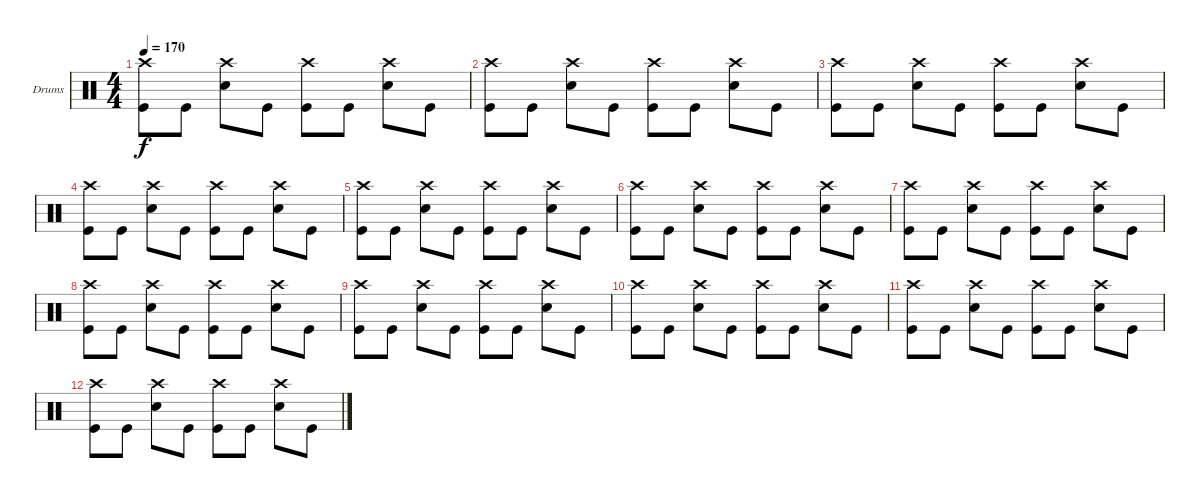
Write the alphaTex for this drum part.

\defaultSystemsLayout 4
\bracketExtendMode groupsimilarinstruments
\firstSystemTrackNameOrientation horizontal
\otherSystemsTrackNameOrientation horizontal
\track ("Drumkit" "Drums") {instrument percussion}
\staff {score}
\articulation defaults
\ts (4 4)
\tempo 170
\clef neutral
\scale
0.333333
\ks c
("Kick (hit)" "Crash high (hit)").8{dy f} "Kick (hit)".8 ("Snare (hit) 2" "Crash high (hit)").8 "Kick (hit)".8 ("Kick (hit)" "Crash high (hit)").8 "Kick (hit)".8 ("Snare (hit) 2" "Crash high (hit)").8 "Kick (hit)".8 |
\scale
0.333333 ("Kick (hit)" "Crash high (hit)").8 "Kick (hit)".8 ("Snare (hit) 2" "Crash high (hit)").8 "Kick (hit)".8 ("Kick (hit)" "Crash high (hit)").8 "Kick (hit)".8 ("Snare (hit) 2" "Crash high (hit)").8 "Kick (hit)".8 |
\scale
0.333333 ("Kick (hit)" "Crash high (hit)").8 "Kick (hit)".8 ("Snare (hit) 2" "Crash high (hit)").8 "Kick (hit)".8 ("Kick (hit)" "Crash high (hit)").8 "Kick (hit)".8 ("Snare (hit) 2" "Crash high (hit)").8 "Kick (hit)".8 |
\scale
0.333333 ("Kick (hit)" "Crash high (hit)").8 "Kick (hit)".8 ("Snare (hit) 2" "Crash high (hit)").8 "Kick (hit)".8 ("Kick (hit)" "Crash high (hit)").8 "Kick (hit)".8 ("Snare (hit) 2" "Crash high (hit)").8 "Kick (hit)".8 |
\scale
0.333333 ("Kick (hit)" "Crash high (hit)").8 "Kick (hit)".8 ("Snare (hit) 2" "Crash high (hit)").8 "Kick (hit)".8 ("Kick (hit)" "Crash high (hit)").8 "Kick (hit)".8 ("Snare (hit) 2" "Crash high (hit)").8 "Kick (hit)".8 |
\scale
0.333333 ("Kick (hit)" "Crash high (hit)").8 "Kick (hit)".8 ("Snare (hit) 2" "Crash high (hit)").8 "Kick (hit)".8 ("Kick (hit)" "Crash high (hit)").8 "Kick (hit)".8 ("Snare (hit) 2" "Crash high (hit)").8 "Kick (hit)".8 |
\scale
0.333333 ("Kick (hit)" "Crash high (hit)").8 "Kick (hit)".8 ("Snare (hit) 2" "Crash high (hit)").8 "Kick (hit)".8 ("Kick (hit)" "Crash high (hit)").8 "Kick (hit)".8 ("Snare (hit) 2" "Crash high (hit)").8 "Kick (hit)".8 |
\scale
0.333333 ("Kick (hit)" "Crash high (hit)").8 "Kick (hit)".8 ("Snare (hit) 2" "Crash high (hit)").8 "Kick (hit)".8 ("Kick (hit)" "Crash high (hit)").8 "Kick (hit)".8 ("Snare (hit) 2" "Crash high (hit)").8 "Kick (hit)".8 |
\scale
0.333333 ("Kick (hit)" "Crash high (hit)").8 "Kick (hit)".8 ("Snare (hit) 2" "Crash high (hit)").8 "Kick (hit)".8 ("Kick (hit)" "Crash high (hit)").8 "Kick (hit)".8 ("Snare (hit) 2" "Crash high (hit)").8 "Kick (hit)".8 |
\scale
0.333333 ("Kick (hit)" "Crash high (hit)").8 "Kick (hit)".8 ("Snare (hit) 2" "Crash high (hit)").8 "Kick (hit)".8 ("Kick (hit)" "Crash high (hit)").8 "Kick (hit)".8 ("Snare (hit) 2" "Crash high (hit)").8 "Kick (hit)".8 |
\scale
0.333333 ("Kick (hit)" "Crash high (hit)").8 "Kick (hit)".8 ("Snare (hit) 2" "Crash high (hit)").8 "Kick (hit)".8 ("Kick (hit)" "Crash high (hit)").8 "Kick (hit)".8 ("Snare (hit) 2" "Crash high (hit)").8 "Kick (hit)".8 |
\scale
0.333333 ("Kick (hit)" "Crash high (hit)").8 "Kick (hit)".8 ("Snare (hit) 2" "Crash high (hit)").8 "Kick (hit)".8 ("Kick (hit)" "Crash high (hit)").8 "Kick (hit)".8 ("Snare (hit) 2" "Crash high (hit)").8 "Kick (hit)".8 |
\scale
0.333333 |
\scale
0.333333
